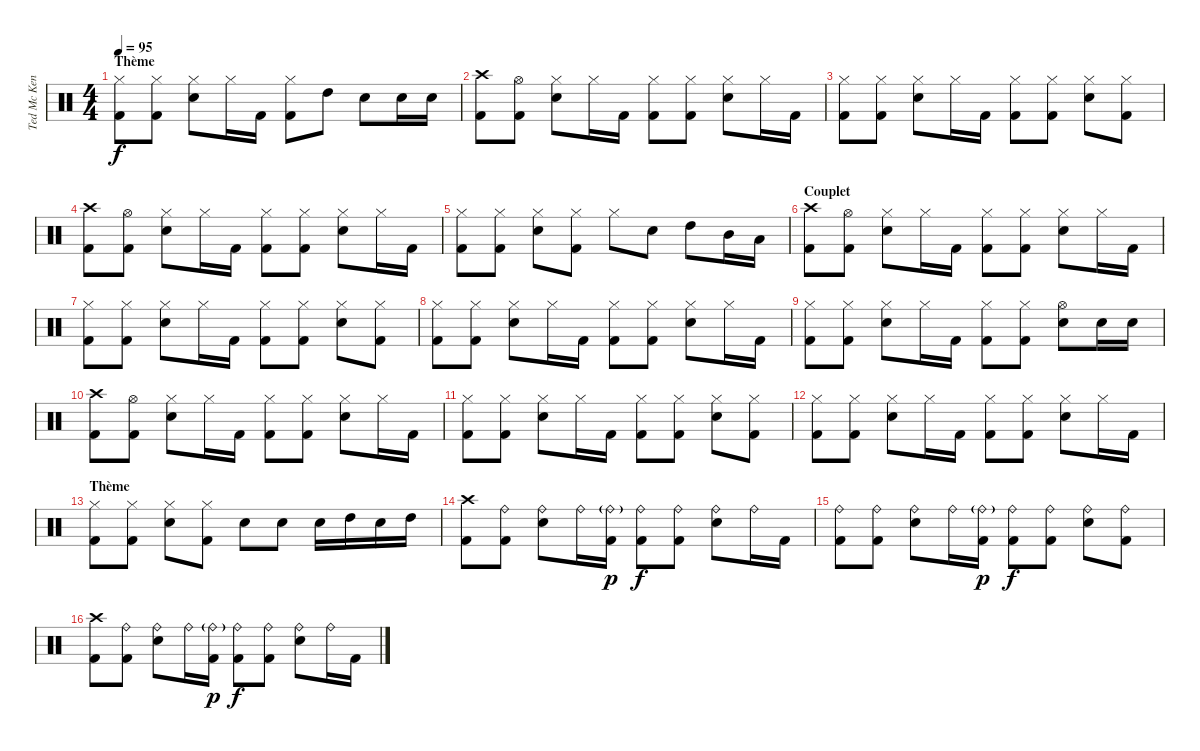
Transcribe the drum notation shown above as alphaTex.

\track ("Ted Mc Kenna" "Ted Mc Ken") {instrument percussion}
\staff {score}
\articulation defaults
\ts (4 4)
\section ("" "Thème")
\tempo 95
\clef neutral
\ks c
("Hi-Hat (closed)" "Kick (hit) 2").8{dy f} ("Hi-Hat (closed)" "Kick (hit) 2").8 ("Hi-Hat (closed)" "Snare (hit) 2").8 "Hi-Hat (closed)".16 "Kick (hit) 2".16 ("Hi-Hat (closed)" "Kick (hit) 2").8 "High Tom (hit)".8 "Snare (hit) 2".8 "Snare (hit) 2".16 "Snare (hit) 2".16 |
("Crash high (hit)" "Kick (hit) 2").8 ("Hi-Hat (open)" "Kick (hit) 2").8 ("Hi-Hat (closed)" "Snare (hit) 2").8 "Hi-Hat (closed)".16 "Kick (hit) 2".16 ("Hi-Hat (closed)" "Kick (hit) 2").8 ("Hi-Hat (closed)" "Kick (hit) 2").8 ("Hi-Hat (closed)" "Snare (hit) 2").8 "Hi-Hat (closed)".16 "Kick (hit) 2".16 |
("Hi-Hat (closed)" "Kick (hit) 2").8 ("Hi-Hat (closed)" "Kick (hit) 2").8 ("Hi-Hat (closed)" "Snare (hit) 2").8 "Hi-Hat (closed)".16 "Kick (hit) 2".16 ("Hi-Hat (closed)" "Kick (hit) 2").8 ("Hi-Hat (closed)" "Kick (hit) 2").8 ("Hi-Hat (closed)" "Snare (hit) 2").8 ("Hi-Hat (closed)" "Kick (hit) 2").8 |
("Crash high (hit)" "Kick (hit) 2").8 ("Hi-Hat (open)" "Kick (hit) 2").8 ("Hi-Hat (closed)" "Snare (hit) 2").8 "Hi-Hat (closed)".16 "Kick (hit) 2".16 ("Hi-Hat (closed)" "Kick (hit) 2").8 ("Hi-Hat (closed)" "Kick (hit) 2").8 ("Hi-Hat (closed)" "Snare (hit) 2").8 "Hi-Hat (closed)".16 "Kick (hit) 2".16 |
("Hi-Hat (closed)" "Kick (hit) 2").8 ("Hi-Hat (closed)" "Kick (hit) 2").8 ("Hi-Hat (closed)" "Snare (hit) 2").8 ("Hi-Hat (closed)" "Kick (hit) 2").8 "Hi-Hat (closed)".8 "Snare (hit) 2".8 "High Tom (hit)".8 "Mid Tom (hit)".16 "Low Tom (hit)".16 |
\section ("" "Couplet")
("Crash high (hit)" "Kick (hit) 2").8 ("Hi-Hat (open)" "Kick (hit) 2").8 ("Hi-Hat (closed)" "Snare (hit) 2").8 "Hi-Hat (closed)".16 "Kick (hit) 2".16 ("Hi-Hat (closed)" "Kick (hit) 2").8 ("Hi-Hat (closed)" "Kick (hit) 2").8 ("Hi-Hat (closed)" "Snare (hit) 2").8 "Hi-Hat (closed)".16 "Kick (hit) 2".16 |
("Hi-Hat (closed)" "Kick (hit) 2").8 ("Hi-Hat (closed)" "Kick (hit) 2").8 ("Hi-Hat (closed)" "Snare (hit) 2").8 "Hi-Hat (closed)".16 "Kick (hit) 2".16 ("Hi-Hat (closed)" "Kick (hit) 2").8 ("Hi-Hat (closed)" "Kick (hit) 2").8 ("Hi-Hat (closed)" "Snare (hit) 2").8 ("Hi-Hat (closed)" "Kick (hit) 2").8 |
("Hi-Hat (closed)" "Kick (hit) 2").8 ("Hi-Hat (closed)" "Kick (hit) 2").8 ("Hi-Hat (closed)" "Snare (hit) 2").8 "Hi-Hat (closed)".16 "Kick (hit) 2".16 ("Hi-Hat (closed)" "Kick (hit) 2").8 ("Hi-Hat (closed)" "Kick (hit) 2").8 ("Hi-Hat (closed)" "Snare (hit) 2").8 "Hi-Hat (closed)".16 "Kick (hit) 2".16 |
("Hi-Hat (closed)" "Kick (hit) 2").8 ("Hi-Hat (closed)" "Kick (hit) 2").8 ("Hi-Hat (closed)" "Snare (hit) 2").8 "Hi-Hat (closed)".16 "Kick (hit) 2".16 ("Hi-Hat (closed)" "Kick (hit) 2").8 ("Hi-Hat (closed)" "Kick (hit) 2").8 ("Hi-Hat (open)" "Snare (hit) 2").8 "Snare (hit) 2".16 "Snare (hit) 2".16 |
("Crash high (hit)" "Kick (hit) 2").8 ("Hi-Hat (open)" "Kick (hit) 2").8 ("Hi-Hat (closed)" "Snare (hit) 2").8 "Hi-Hat (closed)".16 "Kick (hit) 2".16 ("Hi-Hat (closed)" "Kick (hit) 2").8 ("Hi-Hat (closed)" "Kick (hit) 2").8 ("Hi-Hat (closed)" "Snare (hit) 2").8 "Hi-Hat (closed)".16 "Kick (hit) 2".16 |
("Hi-Hat (closed)" "Kick (hit) 2").8 ("Hi-Hat (closed)" "Kick (hit) 2").8 ("Hi-Hat (closed)" "Snare (hit) 2").8 "Hi-Hat (closed)".16 "Kick (hit) 2".16 ("Hi-Hat (closed)" "Kick (hit) 2").8 ("Hi-Hat (closed)" "Kick (hit) 2").8 ("Hi-Hat (closed)" "Snare (hit) 2").8 ("Hi-Hat (closed)" "Kick (hit) 2").8 |
("Hi-Hat (closed)" "Kick (hit) 2").8 ("Hi-Hat (closed)" "Kick (hit) 2").8 ("Hi-Hat (closed)" "Snare (hit) 2").8 "Hi-Hat (closed)".16 "Kick (hit) 2".16 ("Hi-Hat (closed)" "Kick (hit) 2").8 ("Hi-Hat (closed)" "Kick (hit) 2").8 ("Hi-Hat (closed)" "Snare (hit) 2").8 "Hi-Hat (closed)".16 "Kick (hit) 2".16 |
\section ("" "Thème")
("Hi-Hat (closed)" "Kick (hit) 2").8 ("Hi-Hat (closed)" "Kick (hit) 2").8 ("Hi-Hat (closed)" "Snare (hit) 2").8 ("Hi-Hat (closed)" "Kick (hit) 2").8 "Snare (hit) 2".8 "Snare (hit) 2".8 "Snare (hit) 2".16 "High Tom (hit)".16 "Snare (hit) 2".16 "High Tom (hit)".16 |
("Crash high (hit)" "Kick (hit) 2").8 ("Ride (bell)" "Kick (hit) 2").8 ("Ride (bell)" "Snare (hit) 2").8 "Ride (bell)".16 ("Ride (bell)"{g} "Kick (hit) 2").16{dy p} ("Ride (bell)" "Kick (hit) 2").8{dy f} ("Ride (bell)" "Kick (hit) 2").8 ("Ride (bell)" "Snare (hit) 2").8 "Ride (bell)".16 "Kick (hit) 2".16 |
("Ride (bell)" "Kick (hit) 2").8 ("Ride (bell)" "Kick (hit) 2").8 ("Ride (bell)" "Snare (hit) 2").8 "Ride (bell)".16 ("Ride (bell)"{g} "Kick (hit) 2").16{dy p} ("Ride (bell)" "Kick (hit) 2").8{dy f} ("Ride (bell)" "Kick (hit) 2").8 ("Ride (bell)" "Snare (hit) 2").8 ("Ride (bell)" "Kick (hit) 2").8 |
("Crash high (hit)" "Kick (hit) 2").8 ("Ride (bell)" "Kick (hit) 2").8 ("Ride (bell)" "Snare (hit) 2").8 "Ride (bell)".16 ("Ride (bell)"{g} "Kick (hit) 2").16{dy p} ("Ride (bell)" "Kick (hit) 2").8{dy f} ("Ride (bell)" "Kick (hit) 2").8 ("Ride (bell)" "Snare (hit) 2").8 "Ride (bell)".16 "Kick (hit) 2".16
